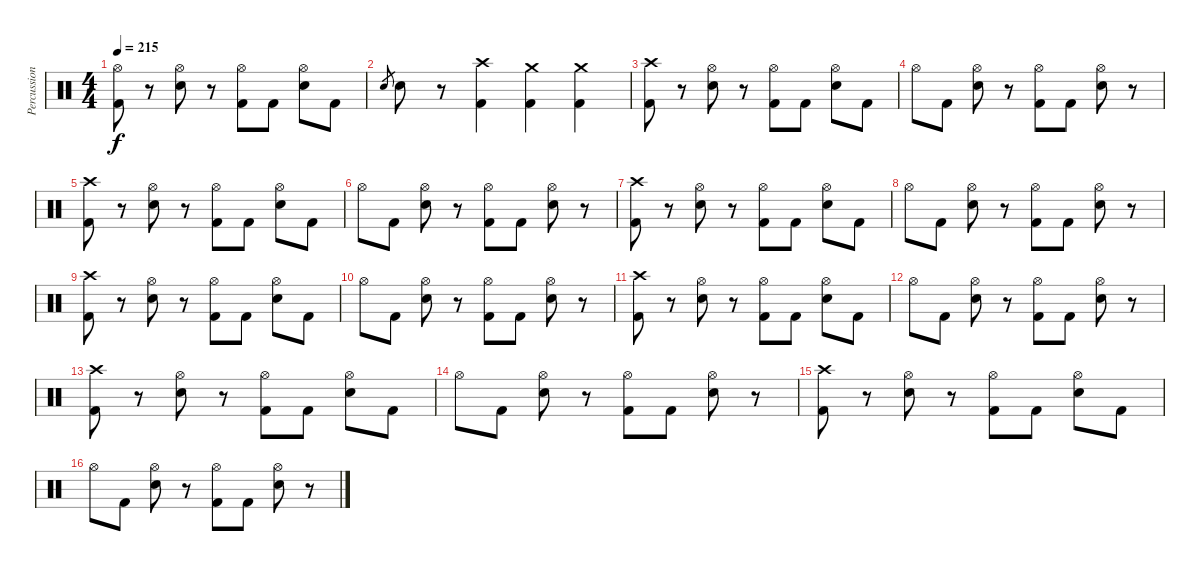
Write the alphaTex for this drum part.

\track ("Percussion" "Percussion") {instrument percussion}
\staff {score}
\articulation defaults
\ts (4 4)
\tempo 215
\clef neutral
\ks c
("Hi-Hat (open)" "Kick (hit) 2").8{dy f} r.8 ("Hi-Hat (open)" "Snare (hit) 2").8 r.8 ("Hi-Hat (open)" "Kick (hit) 2").8 "Kick (hit) 2".8 ("Hi-Hat (open)" "Snare (hit) 2").8 "Kick (hit) 2".8 |
"Snare (hit) 2".8{gr} "Snare (hit) 2".8 r.8 ("Crash high (hit)" "Kick (hit) 2").4 ("Crash medium (hit)" "Kick (hit) 2").4 ("Crash medium (hit)" "Kick (hit) 2").4 |
("Crash high (hit)" "Kick (hit) 2").8 r.8 ("Hi-Hat (open)" "Snare (hit) 2").8 r.8 ("Hi-Hat (open)" "Kick (hit) 2").8 "Kick (hit) 2".8 ("Hi-Hat (open)" "Snare (hit) 2").8 "Kick (hit) 2".8 |
"Hi-Hat (open)".8 "Kick (hit) 2".8 ("Hi-Hat (open)" "Snare (hit) 2").8 r.8 ("Hi-Hat (open)" "Kick (hit) 2").8 "Kick (hit) 2".8 ("Hi-Hat (open)" "Snare (hit) 2").8 r.8 |
("Crash high (hit)" "Kick (hit) 2").8 r.8 ("Hi-Hat (open)" "Snare (hit) 2").8 r.8 ("Hi-Hat (open)" "Kick (hit) 2").8 "Kick (hit) 2".8 ("Hi-Hat (open)" "Snare (hit) 2").8 "Kick (hit) 2".8 |
"Hi-Hat (open)".8 "Kick (hit) 2".8 ("Hi-Hat (open)" "Snare (hit) 2").8 r.8 ("Hi-Hat (open)" "Kick (hit) 2").8 "Kick (hit) 2".8 ("Hi-Hat (open)" "Snare (hit) 2").8 r.8 |
("Crash high (hit)" "Kick (hit) 2").8 r.8 ("Hi-Hat (open)" "Snare (hit) 2").8 r.8 ("Hi-Hat (open)" "Kick (hit) 2").8 "Kick (hit) 2".8 ("Hi-Hat (open)" "Snare (hit) 2").8 "Kick (hit) 2".8 |
"Hi-Hat (open)".8 "Kick (hit) 2".8 ("Hi-Hat (open)" "Snare (hit) 2").8 r.8 ("Hi-Hat (open)" "Kick (hit) 2").8 "Kick (hit) 2".8 ("Hi-Hat (open)" "Snare (hit) 2").8 r.8 |
("Crash high (hit)" "Kick (hit) 2").8 r.8 ("Hi-Hat (open)" "Snare (hit) 2").8 r.8 ("Hi-Hat (open)" "Kick (hit) 2").8 "Kick (hit) 2".8 ("Hi-Hat (open)" "Snare (hit) 2").8 "Kick (hit) 2".8 |
"Hi-Hat (open)".8 "Kick (hit) 2".8 ("Hi-Hat (open)" "Snare (hit) 2").8 r.8 ("Hi-Hat (open)" "Kick (hit) 2").8 "Kick (hit) 2".8 ("Hi-Hat (open)" "Snare (hit) 2").8 r.8 |
("Crash high (hit)" "Kick (hit) 2").8 r.8 ("Hi-Hat (open)" "Snare (hit) 2").8 r.8 ("Hi-Hat (open)" "Kick (hit) 2").8 "Kick (hit) 2".8 ("Hi-Hat (open)" "Snare (hit) 2").8 "Kick (hit) 2".8 |
"Hi-Hat (open)".8 "Kick (hit) 2".8 ("Hi-Hat (open)" "Snare (hit) 2").8 r.8 ("Hi-Hat (open)" "Kick (hit) 2").8 "Kick (hit) 2".8 ("Hi-Hat (open)" "Snare (hit) 2").8 r.8 |
("Crash high (hit)" "Kick (hit) 2").8 r.8 ("Hi-Hat (open)" "Snare (hit) 2").8 r.8 ("Hi-Hat (open)" "Kick (hit) 2").8 "Kick (hit) 2".8 ("Hi-Hat (open)" "Snare (hit) 2").8 "Kick (hit) 2".8 |
"Hi-Hat (open)".8 "Kick (hit) 2".8 ("Hi-Hat (open)" "Snare (hit) 2").8 r.8 ("Hi-Hat (open)" "Kick (hit) 2").8 "Kick (hit) 2".8 ("Hi-Hat (open)" "Snare (hit) 2").8 r.8 |
("Crash high (hit)" "Kick (hit) 2").8 r.8 ("Hi-Hat (open)" "Snare (hit) 2").8 r.8 ("Hi-Hat (open)" "Kick (hit) 2").8 "Kick (hit) 2".8 ("Hi-Hat (open)" "Snare (hit) 2").8 "Kick (hit) 2".8 |
"Hi-Hat (open)".8 "Kick (hit) 2".8 ("Hi-Hat (open)" "Snare (hit) 2").8 r.8 ("Hi-Hat (open)" "Kick (hit) 2").8 "Kick (hit) 2".8 ("Hi-Hat (open)" "Snare (hit) 2").8 r.8
